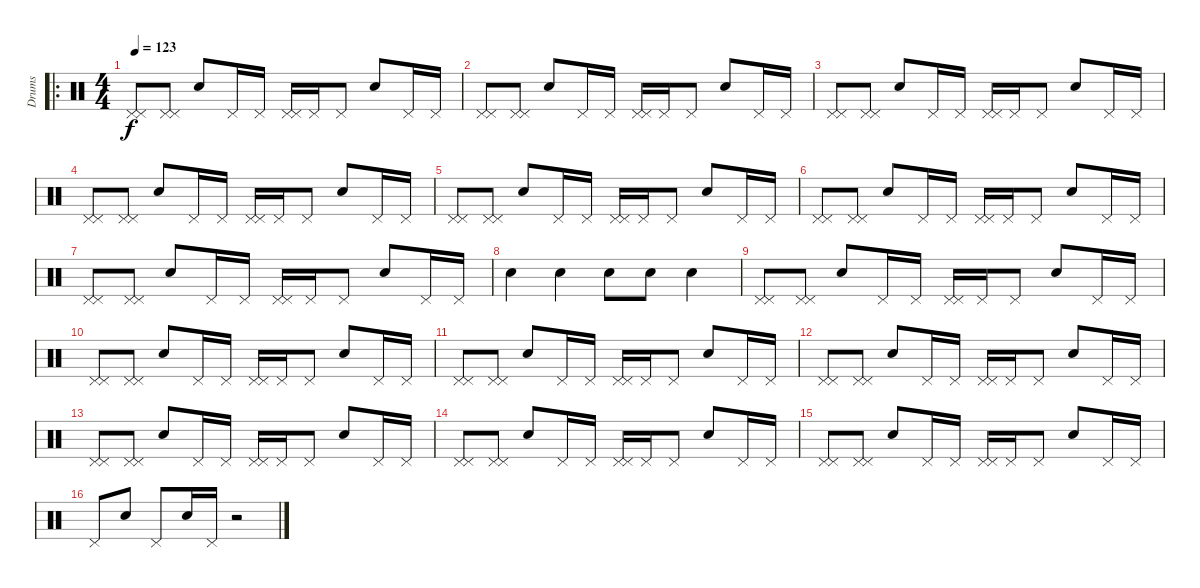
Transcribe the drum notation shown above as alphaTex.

\track ("Drums" "Drums") {instrument percussion}
\staff {score}
\articulation defaults
\ro
\ts (4 4)
\tempo 123
\clef neutral
\ks c
("Pedal Hi-Hat (hit)" "Pedal Hi-Hat (hit)").8{dy f} ("Pedal Hi-Hat (hit)" "Pedal Hi-Hat (hit)").8 "Electric Snare (hit)".8 "Pedal Hi-Hat (hit)".16 "Pedal Hi-Hat (hit)".16 ("Pedal Hi-Hat (hit)" "Pedal Hi-Hat (hit)").16 "Pedal Hi-Hat (hit)".16 "Pedal Hi-Hat (hit)".8 "Electric Snare (hit)".8 "Pedal Hi-Hat (hit)".16 "Pedal Hi-Hat (hit)".16 |
("Pedal Hi-Hat (hit)" "Pedal Hi-Hat (hit)").8 ("Pedal Hi-Hat (hit)" "Pedal Hi-Hat (hit)").8 "Electric Snare (hit)".8 "Pedal Hi-Hat (hit)".16 "Pedal Hi-Hat (hit)".16 ("Pedal Hi-Hat (hit)" "Pedal Hi-Hat (hit)").16 "Pedal Hi-Hat (hit)".16 "Pedal Hi-Hat (hit)".8 "Electric Snare (hit)".8 "Pedal Hi-Hat (hit)".16 "Pedal Hi-Hat (hit)".16 |
("Pedal Hi-Hat (hit)" "Pedal Hi-Hat (hit)").8 ("Pedal Hi-Hat (hit)" "Pedal Hi-Hat (hit)").8 "Electric Snare (hit)".8 "Pedal Hi-Hat (hit)".16 "Pedal Hi-Hat (hit)".16 ("Pedal Hi-Hat (hit)" "Pedal Hi-Hat (hit)").16 "Pedal Hi-Hat (hit)".16 "Pedal Hi-Hat (hit)".8 "Electric Snare (hit)".8 "Pedal Hi-Hat (hit)".16 "Pedal Hi-Hat (hit)".16 |
("Pedal Hi-Hat (hit)" "Pedal Hi-Hat (hit)").8 ("Pedal Hi-Hat (hit)" "Pedal Hi-Hat (hit)").8 "Electric Snare (hit)".8 "Pedal Hi-Hat (hit)".16 "Pedal Hi-Hat (hit)".16 ("Pedal Hi-Hat (hit)" "Pedal Hi-Hat (hit)").16 "Pedal Hi-Hat (hit)".16 "Pedal Hi-Hat (hit)".8 "Electric Snare (hit)".8 "Pedal Hi-Hat (hit)".16 "Pedal Hi-Hat (hit)".16 |
("Pedal Hi-Hat (hit)" "Pedal Hi-Hat (hit)").8 ("Pedal Hi-Hat (hit)" "Pedal Hi-Hat (hit)").8 "Electric Snare (hit)".8 "Pedal Hi-Hat (hit)".16 "Pedal Hi-Hat (hit)".16 ("Pedal Hi-Hat (hit)" "Pedal Hi-Hat (hit)").16 "Pedal Hi-Hat (hit)".16 "Pedal Hi-Hat (hit)".8 "Electric Snare (hit)".8 "Pedal Hi-Hat (hit)".16 "Pedal Hi-Hat (hit)".16 |
("Pedal Hi-Hat (hit)" "Pedal Hi-Hat (hit)").8 ("Pedal Hi-Hat (hit)" "Pedal Hi-Hat (hit)").8 "Electric Snare (hit)".8 "Pedal Hi-Hat (hit)".16 "Pedal Hi-Hat (hit)".16 ("Pedal Hi-Hat (hit)" "Pedal Hi-Hat (hit)").16 "Pedal Hi-Hat (hit)".16 "Pedal Hi-Hat (hit)".8 "Electric Snare (hit)".8 "Pedal Hi-Hat (hit)".16 "Pedal Hi-Hat (hit)".16 |
("Pedal Hi-Hat (hit)" "Pedal Hi-Hat (hit)").8 ("Pedal Hi-Hat (hit)" "Pedal Hi-Hat (hit)").8 "Electric Snare (hit)".8 "Pedal Hi-Hat (hit)".16 "Pedal Hi-Hat (hit)".16 ("Pedal Hi-Hat (hit)" "Pedal Hi-Hat (hit)").16 "Pedal Hi-Hat (hit)".16 "Pedal Hi-Hat (hit)".8 "Electric Snare (hit)".8 "Pedal Hi-Hat (hit)".16 "Pedal Hi-Hat (hit)".16 |
"Electric Snare (hit)".4 "Electric Snare (hit)".4 "Electric Snare (hit)".8 "Electric Snare (hit)".8 "Electric Snare (hit)".4 |
("Pedal Hi-Hat (hit)" "Pedal Hi-Hat (hit)").8 ("Pedal Hi-Hat (hit)" "Pedal Hi-Hat (hit)").8 "Electric Snare (hit)".8 "Pedal Hi-Hat (hit)".16 "Pedal Hi-Hat (hit)".16 ("Pedal Hi-Hat (hit)" "Pedal Hi-Hat (hit)").16 "Pedal Hi-Hat (hit)".16 "Pedal Hi-Hat (hit)".8 "Electric Snare (hit)".8 "Pedal Hi-Hat (hit)".16 "Pedal Hi-Hat (hit)".16 |
("Pedal Hi-Hat (hit)" "Pedal Hi-Hat (hit)").8 ("Pedal Hi-Hat (hit)" "Pedal Hi-Hat (hit)").8 "Electric Snare (hit)".8 "Pedal Hi-Hat (hit)".16 "Pedal Hi-Hat (hit)".16 ("Pedal Hi-Hat (hit)" "Pedal Hi-Hat (hit)").16 "Pedal Hi-Hat (hit)".16 "Pedal Hi-Hat (hit)".8 "Electric Snare (hit)".8 "Pedal Hi-Hat (hit)".16 "Pedal Hi-Hat (hit)".16 |
("Pedal Hi-Hat (hit)" "Pedal Hi-Hat (hit)").8 ("Pedal Hi-Hat (hit)" "Pedal Hi-Hat (hit)").8 "Electric Snare (hit)".8 "Pedal Hi-Hat (hit)".16 "Pedal Hi-Hat (hit)".16 ("Pedal Hi-Hat (hit)" "Pedal Hi-Hat (hit)").16 "Pedal Hi-Hat (hit)".16 "Pedal Hi-Hat (hit)".8 "Electric Snare (hit)".8 "Pedal Hi-Hat (hit)".16 "Pedal Hi-Hat (hit)".16 |
("Pedal Hi-Hat (hit)" "Pedal Hi-Hat (hit)").8 ("Pedal Hi-Hat (hit)" "Pedal Hi-Hat (hit)").8 "Electric Snare (hit)".8 "Pedal Hi-Hat (hit)".16 "Pedal Hi-Hat (hit)".16 ("Pedal Hi-Hat (hit)" "Pedal Hi-Hat (hit)").16 "Pedal Hi-Hat (hit)".16 "Pedal Hi-Hat (hit)".8 "Electric Snare (hit)".8 "Pedal Hi-Hat (hit)".16 "Pedal Hi-Hat (hit)".16 |
("Pedal Hi-Hat (hit)" "Pedal Hi-Hat (hit)").8 ("Pedal Hi-Hat (hit)" "Pedal Hi-Hat (hit)").8 "Electric Snare (hit)".8 "Pedal Hi-Hat (hit)".16 "Pedal Hi-Hat (hit)".16 ("Pedal Hi-Hat (hit)" "Pedal Hi-Hat (hit)").16 "Pedal Hi-Hat (hit)".16 "Pedal Hi-Hat (hit)".8 "Electric Snare (hit)".8 "Pedal Hi-Hat (hit)".16 "Pedal Hi-Hat (hit)".16 |
("Pedal Hi-Hat (hit)" "Pedal Hi-Hat (hit)").8 ("Pedal Hi-Hat (hit)" "Pedal Hi-Hat (hit)").8 "Electric Snare (hit)".8 "Pedal Hi-Hat (hit)".16 "Pedal Hi-Hat (hit)".16 ("Pedal Hi-Hat (hit)" "Pedal Hi-Hat (hit)").16 "Pedal Hi-Hat (hit)".16 "Pedal Hi-Hat (hit)".8 "Electric Snare (hit)".8 "Pedal Hi-Hat (hit)".16 "Pedal Hi-Hat (hit)".16 |
("Pedal Hi-Hat (hit)" "Pedal Hi-Hat (hit)").8 ("Pedal Hi-Hat (hit)" "Pedal Hi-Hat (hit)").8 "Electric Snare (hit)".8 "Pedal Hi-Hat (hit)".16 "Pedal Hi-Hat (hit)".16 ("Pedal Hi-Hat (hit)" "Pedal Hi-Hat (hit)").16 "Pedal Hi-Hat (hit)".16 "Pedal Hi-Hat (hit)".8 "Electric Snare (hit)".8 "Pedal Hi-Hat (hit)".16 "Pedal Hi-Hat (hit)".16 |
"Pedal Hi-Hat (hit)".8 "Electric Snare (hit)".8 "Pedal Hi-Hat (hit)".8 "Electric Snare (hit)".16 "Pedal Hi-Hat (hit)".16 r.2
